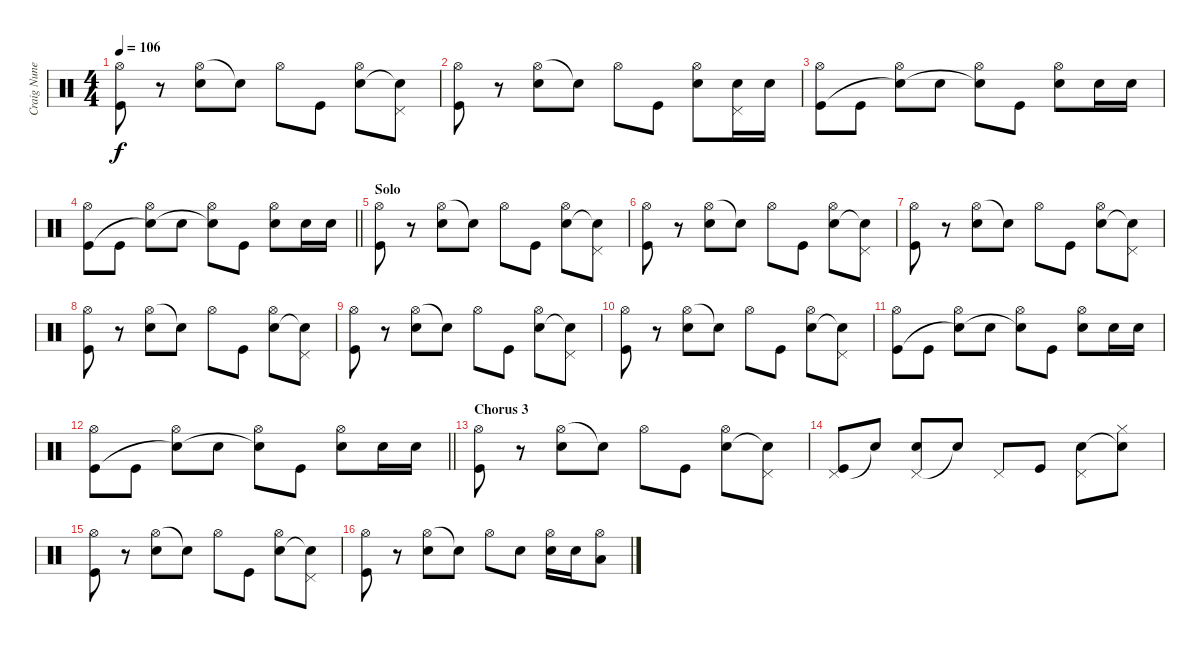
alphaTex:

\track ("Craig Nunenmacher (Drums)" "Craig Nune") {instrument percussion}
\staff {score}
\articulation defaults
\ts (4 4)
\tempo 106
\clef neutral
\ks c
("Hi-Hat (open)" "Kick (hit)").8{dy f} r.8 ("Hi-Hat (open)" "Electric Snare (hit)").8 "Snare (hit)"{t}.8 "Hi-Hat (open)".8 "Kick (hit)".8 ("Hi-Hat (open)" "Electric Snare (hit)").8 ("Pedal Hi-Hat (hit)" "Snare (hit)"{t}).8 |
("Hi-Hat (open)" "Kick (hit)").8 r.8 ("Hi-Hat (open)" "Electric Snare (hit)").8 "Snare (hit)"{t}.8 "Hi-Hat (open)".8 "Kick (hit)".8 ("Hi-Hat (open)" "Electric Snare (hit)").8 ("Pedal Hi-Hat (hit)" "Electric Snare (hit)").16 "Electric Snare (hit)".16 |
("Hi-Hat (open)" "Kick (hit)").8 "Kick (hit)".8 ("Hi-Hat (open)" "Snare (hit)"{t}).8 "Electric Snare (hit)".8 ("Hi-Hat (open)" "Snare (hit)"{t}).8 "Kick (hit)".8 ("Hi-Hat (open)" "Electric Snare (hit)").8 "Electric Snare (hit)".16 "Electric Snare (hit)".16 |
\barLineRight lightlight
("Hi-Hat (open)" "Kick (hit)").8 "Kick (hit)".8 ("Hi-Hat (open)" "Snare (hit)"{t}).8 "Electric Snare (hit)".8 ("Hi-Hat (open)" "Snare (hit)"{t}).8 "Kick (hit)".8 ("Hi-Hat (open)" "Electric Snare (hit)").8 "Electric Snare (hit)".16 "Electric Snare (hit)".16 |
\section ("" "Solo")
("Hi-Hat (open)" "Kick (hit)").8 r.8 ("Hi-Hat (open)" "Electric Snare (hit)").8 "Snare (hit)"{t}.8 "Hi-Hat (open)".8 "Kick (hit)".8 ("Hi-Hat (open)" "Electric Snare (hit)").8 ("Pedal Hi-Hat (hit)" "Snare (hit)"{t}).8 |
("Hi-Hat (open)" "Kick (hit)").8 r.8 ("Hi-Hat (open)" "Electric Snare (hit)").8 "Snare (hit)"{t}.8 "Hi-Hat (open)".8 "Kick (hit)".8 ("Hi-Hat (open)" "Electric Snare (hit)").8 ("Pedal Hi-Hat (hit)" "Snare (hit)"{t}).8 |
("Hi-Hat (open)" "Kick (hit)").8 r.8 ("Hi-Hat (open)" "Electric Snare (hit)").8 "Snare (hit)"{t}.8 "Hi-Hat (open)".8 "Kick (hit)".8 ("Hi-Hat (open)" "Electric Snare (hit)").8 ("Pedal Hi-Hat (hit)" "Snare (hit)"{t}).8 |
("Hi-Hat (open)" "Kick (hit)").8 r.8 ("Hi-Hat (open)" "Electric Snare (hit)").8 "Snare (hit)"{t}.8 "Hi-Hat (open)".8 "Kick (hit)".8 ("Hi-Hat (open)" "Electric Snare (hit)").8 ("Pedal Hi-Hat (hit)" "Snare (hit)"{t}).8 |
("Hi-Hat (open)" "Kick (hit)").8 r.8 ("Hi-Hat (open)" "Electric Snare (hit)").8 "Snare (hit)"{t}.8 "Hi-Hat (open)".8 "Kick (hit)".8 ("Hi-Hat (open)" "Electric Snare (hit)").8 ("Pedal Hi-Hat (hit)" "Snare (hit)"{t}).8 |
("Hi-Hat (open)" "Kick (hit)").8 r.8 ("Hi-Hat (open)" "Electric Snare (hit)").8 "Snare (hit)"{t}.8 "Hi-Hat (open)".8 "Kick (hit)".8 ("Hi-Hat (open)" "Electric Snare (hit)").8 ("Pedal Hi-Hat (hit)" "Snare (hit)"{t}).8 |
("Hi-Hat (open)" "Kick (hit)").8 "Kick (hit)".8 ("Hi-Hat (open)" "Snare (hit)"{t}).8 "Electric Snare (hit)".8 ("Hi-Hat (open)" "Snare (hit)"{t}).8 "Kick (hit)".8 ("Hi-Hat (open)" "Electric Snare (hit)").8 "Electric Snare (hit)".16 "Electric Snare (hit)".16 |
\barLineRight lightlight
("Hi-Hat (open)" "Kick (hit)").8 "Kick (hit)".8 ("Hi-Hat (open)" "Snare (hit)"{t}).8 "Electric Snare (hit)".8 ("Hi-Hat (open)" "Snare (hit)"{t}).8 "Kick (hit)".8 ("Hi-Hat (open)" "Electric Snare (hit)").8 "Electric Snare (hit)".16 "Electric Snare (hit)".16 |
\section ("" "Chorus 3")
("Hi-Hat (open)" "Kick (hit)").8 r.8 ("Hi-Hat (open)" "Electric Snare (hit)").8 "Snare (hit)"{t}.8 "Hi-Hat (open)".8 "Kick (hit)".8 ("Hi-Hat (open)" "Electric Snare (hit)").8 ("Pedal Hi-Hat (hit)" "Snare (hit)"{t}).8 |
("Pedal Hi-Hat (hit)" "Kick (hit)").8 "Snare (hit)"{t}.8 ("Pedal Hi-Hat (hit)" "Electric Snare (hit)").8 "Snare (hit)"{t}.8 "Pedal Hi-Hat (hit)".8 "Kick (hit)".8 ("Pedal Hi-Hat (hit)" "Electric Snare (hit)").8 ("Hi-Hat (closed)" "Snare (hit)"{t}).8 |
("Hi-Hat (open)" "Kick (hit)").8 r.8 ("Hi-Hat (open)" "Electric Snare (hit)").8 "Snare (hit)"{t}.8 "Hi-Hat (open)".8 "Kick (hit)".8 ("Hi-Hat (open)" "Electric Snare (hit)").8 ("Pedal Hi-Hat (hit)" "Snare (hit)"{t}).8 |
("Hi-Hat (open)" "Kick (hit)").8 r.8 ("Hi-Hat (open)" "Electric Snare (hit)").8 "Snare (hit)"{t}.8 "Hi-Hat (open)".8 "Electric Snare (hit)".8 ("Hi-Hat (open)" "Electric Snare (hit)").16 "Electric Snare (hit)".16 ("Hi-Hat (open)" "Low Floor Tom (hit)").8
